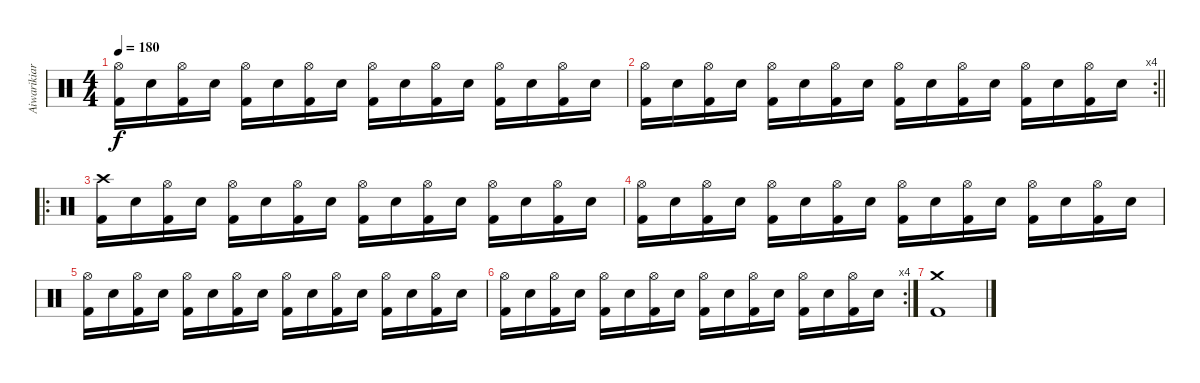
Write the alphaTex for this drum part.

\track ("Aiwarikiar" "Aiwarikiar") {instrument percussion}
\staff {score}
\articulation defaults
\ts (4 4)
\tempo 180
\clef neutral
\ks c
("Hi-Hat (open)" "Kick (hit) 2").16{dy f} "Electric Snare (hit)".16 ("Hi-Hat (open)" "Kick (hit) 2").16 "Electric Snare (hit)".16 ("Hi-Hat (open)" "Kick (hit) 2").16 "Electric Snare (hit)".16 ("Hi-Hat (open)" "Kick (hit) 2").16 "Electric Snare (hit)".16 ("Hi-Hat (open)" "Kick (hit) 2").16 "Electric Snare (hit)".16 ("Hi-Hat (open)" "Kick (hit) 2").16 "Electric Snare (hit)".16 ("Hi-Hat (open)" "Kick (hit) 2").16 "Electric Snare (hit)".16 ("Hi-Hat (open)" "Kick (hit) 2").16 "Electric Snare (hit)".16 |
\rc 4
\barLineRight lightlight
("Hi-Hat (open)" "Kick (hit) 2").16 "Electric Snare (hit)".16 ("Hi-Hat (open)" "Kick (hit) 2").16 "Electric Snare (hit)".16 ("Hi-Hat (open)" "Kick (hit) 2").16 "Electric Snare (hit)".16 ("Hi-Hat (open)" "Kick (hit) 2").16 "Electric Snare (hit)".16 ("Hi-Hat (open)" "Kick (hit) 2").16 "Electric Snare (hit)".16 ("Hi-Hat (open)" "Kick (hit) 2").16 "Electric Snare (hit)".16 ("Hi-Hat (open)" "Kick (hit) 2").16 "Electric Snare (hit)".16 ("Hi-Hat (open)" "Kick (hit) 2").16 "Electric Snare (hit)".16 |
\ro
("Crash high (hit)" "Kick (hit) 2").16 "Electric Snare (hit)".16 ("Hi-Hat (open)" "Kick (hit) 2").16 "Electric Snare (hit)".16 ("Hi-Hat (open)" "Kick (hit) 2").16 "Electric Snare (hit)".16 ("Hi-Hat (open)" "Kick (hit) 2").16 "Electric Snare (hit)".16 ("Hi-Hat (open)" "Kick (hit) 2").16 "Electric Snare (hit)".16 ("Hi-Hat (open)" "Kick (hit) 2").16 "Electric Snare (hit)".16 ("Hi-Hat (open)" "Kick (hit) 2").16 "Electric Snare (hit)".16 ("Hi-Hat (open)" "Kick (hit) 2").16 "Electric Snare (hit)".16 |
("Hi-Hat (open)" "Kick (hit) 2").16 "Electric Snare (hit)".16 ("Hi-Hat (open)" "Kick (hit) 2").16 "Electric Snare (hit)".16 ("Hi-Hat (open)" "Kick (hit) 2").16 "Electric Snare (hit)".16 ("Hi-Hat (open)" "Kick (hit) 2").16 "Electric Snare (hit)".16 ("Hi-Hat (open)" "Kick (hit) 2").16 "Electric Snare (hit)".16 ("Hi-Hat (open)" "Kick (hit) 2").16 "Electric Snare (hit)".16 ("Hi-Hat (open)" "Kick (hit) 2").16 "Electric Snare (hit)".16 ("Hi-Hat (open)" "Kick (hit) 2").16 "Electric Snare (hit)".16 |
("Hi-Hat (open)" "Kick (hit) 2").16 "Electric Snare (hit)".16 ("Hi-Hat (open)" "Kick (hit) 2").16 "Electric Snare (hit)".16 ("Hi-Hat (open)" "Kick (hit) 2").16 "Electric Snare (hit)".16 ("Hi-Hat (open)" "Kick (hit) 2").16 "Electric Snare (hit)".16 ("Hi-Hat (open)" "Kick (hit) 2").16 "Electric Snare (hit)".16 ("Hi-Hat (open)" "Kick (hit) 2").16 "Electric Snare (hit)".16 ("Hi-Hat (open)" "Kick (hit) 2").16 "Electric Snare (hit)".16 ("Hi-Hat (open)" "Kick (hit) 2").16 "Electric Snare (hit)".16 |
\rc 4
("Hi-Hat (open)" "Kick (hit) 2").16 "Electric Snare (hit)".16 ("Hi-Hat (open)" "Kick (hit) 2").16 "Electric Snare (hit)".16 ("Hi-Hat (open)" "Kick (hit) 2").16 "Electric Snare (hit)".16 ("Hi-Hat (open)" "Kick (hit) 2").16 "Electric Snare (hit)".16 ("Hi-Hat (open)" "Kick (hit) 2").16 "Electric Snare (hit)".16 ("Hi-Hat (open)" "Kick (hit) 2").16 "Electric Snare (hit)".16 ("Hi-Hat (open)" "Kick (hit) 2").16 "Electric Snare (hit)".16 ("Hi-Hat (open)" "Kick (hit) 2").16 "Electric Snare (hit)".16 |
("Crash medium (hit)" "Kick (hit) 2").1
